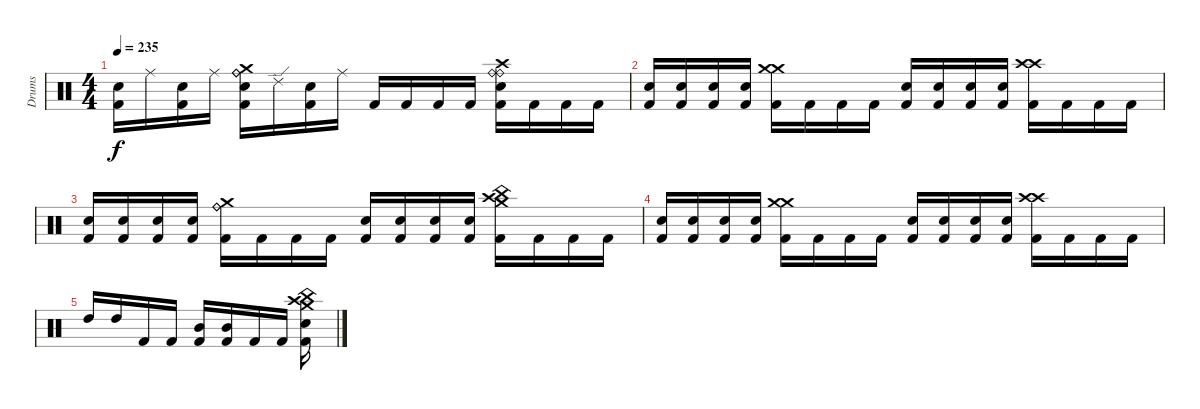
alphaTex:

\track ("Drums" "Drums") {instrument percussion}
\staff {score}
\articulation defaults
\ts (4 4)
\tempo 235
\clef neutral
\ks c
("Electric Snare (hit)" "Kick (hit) 2").16{dy f} "Ride (middle)".16 ("Electric Snare (hit)" "Kick (hit) 2").16 "Ride (middle)".16 ("Crash medium (hit)" "Ride (bell)" "Ride (bell)" "Electric Snare (hit)" "Kick (hit) 2").16 "Ride (edge) 2".16 ("Electric Snare (hit)" "Kick (hit) 2").16 "Ride (middle)".16 "Kick (hit) 2".16 "Kick (hit) 2".16 "Kick (hit) 2".16 "Kick (hit) 2".16 ("Crash high (hit)" "Ride (bell)" "Ride (bell)" "Electric Snare (hit)" "Kick (hit) 2").16 "Kick (hit) 2".16 "Kick (hit) 2".16 "Kick (hit) 2".16 |
("Electric Snare (hit)" "Kick (hit) 2").16 ("Electric Snare (hit)" "Kick (hit) 2").16 ("Electric Snare (hit)" "Kick (hit) 2").16 ("Electric Snare (hit)" "Kick (hit) 2").16 ("Crash medium (hit)" "Crash medium (hit)" "Kick (hit) 2").16 "Kick (hit) 2".16 "Kick (hit) 2".16 "Kick (hit) 2".16 ("Electric Snare (hit)" "Kick (hit) 2").16 ("Electric Snare (hit)" "Kick (hit) 2").16 ("Electric Snare (hit)" "Kick (hit) 2").16 ("Electric Snare (hit)" "Kick (hit) 2").16 ("Crash high (hit)" "Crash high (hit)" "Kick (hit) 2").16 "Kick (hit) 2".16 "Kick (hit) 2".16 "Kick (hit) 2".16 |
("Electric Snare (hit)" "Kick (hit) 2").16 ("Electric Snare (hit)" "Kick (hit) 2").16 ("Electric Snare (hit)" "Kick (hit) 2").16 ("Electric Snare (hit)" "Kick (hit) 2").16 ("Ride (bell)" "Ride (bell)" "Crash medium (hit)" "Kick (hit) 2").16 "Kick (hit) 2".16 "Kick (hit) 2".16 "Kick (hit) 2".16 ("Electric Snare (hit)" "Kick (hit) 2").16 ("Electric Snare (hit)" "Kick (hit) 2").16 ("Electric Snare (hit)" "Kick (hit) 2").16 ("Electric Snare (hit)" "Kick (hit) 2").16 ("Crash medium (hit)" "China (hit)" "Crash high (hit)" "Kick (hit) 2").16 "Kick (hit) 2".16 "Kick (hit) 2".16 "Kick (hit) 2".16 |
("Electric Snare (hit)" "Kick (hit) 2").16 ("Electric Snare (hit)" "Kick (hit) 2").16 ("Electric Snare (hit)" "Kick (hit) 2").16 ("Electric Snare (hit)" "Kick (hit) 2").16 ("Crash medium (hit)" "Crash medium (hit)" "Kick (hit) 2").16 "Kick (hit) 2".16 "Kick (hit) 2".16 "Kick (hit) 2".16 ("Electric Snare (hit)" "Kick (hit) 2").16 ("Electric Snare (hit)" "Kick (hit) 2").16 ("Electric Snare (hit)" "Kick (hit) 2").16 ("Electric Snare (hit)" "Kick (hit) 2").16 ("Crash high (hit)" "Crash high (hit)" "Kick (hit) 2").16 "Kick (hit) 2".16 "Kick (hit) 2".16 "Kick (hit) 2".16 |
"High Tom (hit)".16 "High Tom (hit)".16 "Kick (hit) 2".16 "Kick (hit) 2".16 ("Mid Tom (hit)" "Kick (hit) 2").16 ("Mid Tom (hit)" "Kick (hit) 2").16 "Kick (hit) 2".16 "Kick (hit) 2".16 ("Crash high (hit)" "Crash medium (hit)" "China (hit)" "Electric Snare (hit)" "Kick (hit) 2").16
